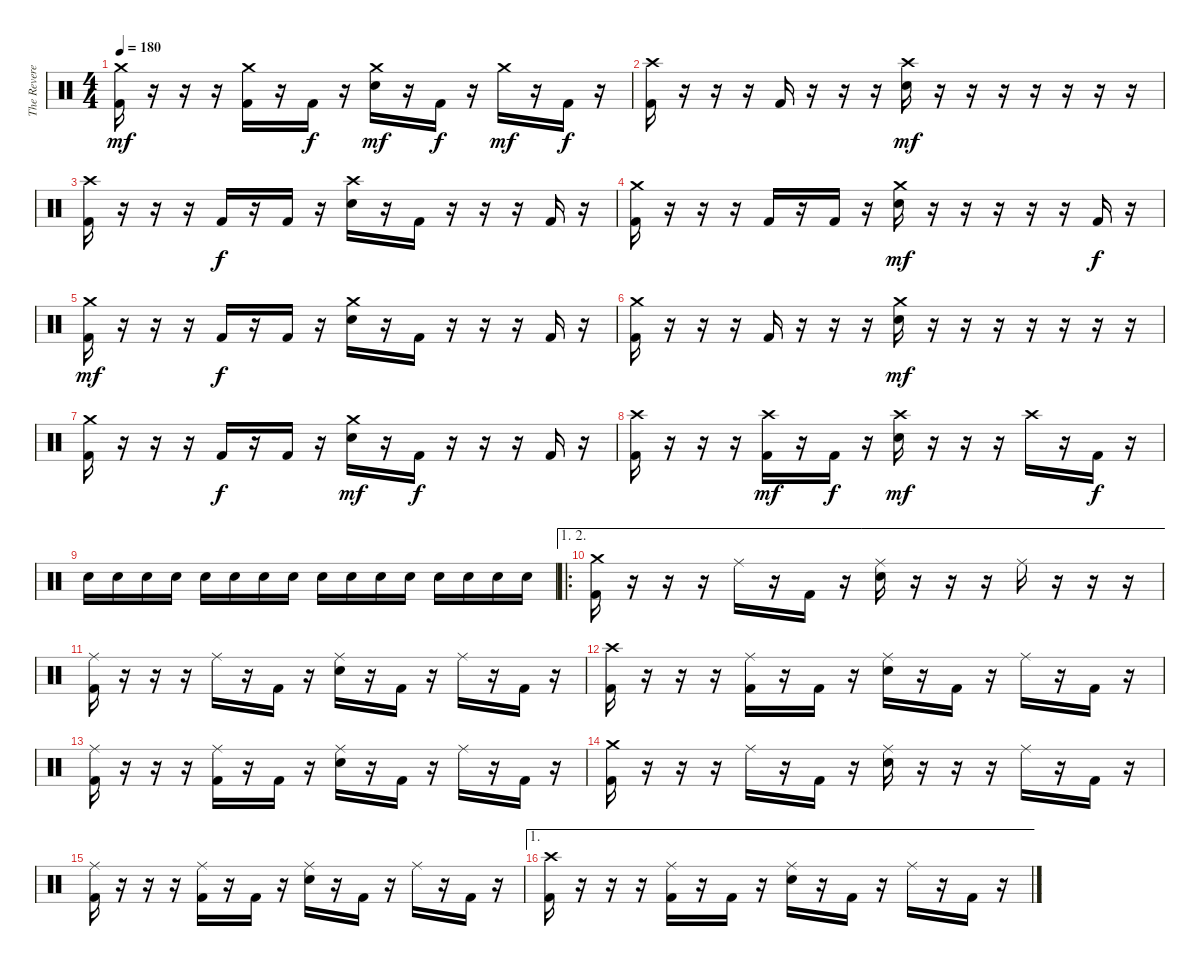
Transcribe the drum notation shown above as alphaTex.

\track ("The Reverend" "The Revere") {instrument percussion}
\staff {score}
\articulation defaults
\ts (4 4)
\tempo 180
\clef neutral
\ks c
("Crash medium (hit)" "Kick (hit) 2").16{dy mf} r.16 r.16 r.16 ("Crash medium (hit)" "Kick (hit) 2").16 r.16 "Kick (hit) 2".16{dy f} r.16 ("Crash medium (hit)" "Snare (hit) 2").16{dy mf} r.16 "Kick (hit) 2".16{dy f} r.16 "Crash medium (hit)".16{dy mf} r.16 "Kick (hit) 2".16{dy f} r.16 |
("Crash high (hit)" "Kick (hit) 2").16 r.16 r.16 r.16 "Kick (hit) 2".16 r.16 r.16 r.16 ("Crash high (hit)" "Snare (hit) 2").16{dy mf} r.16 r.16 r.16 r.16 r.16 r.16 r.16 |
("Crash high (hit)" "Kick (hit) 2").16 r.16 r.16 r.16 "Kick (hit) 2".16{dy f} r.16 "Kick (hit) 2".16 r.16 ("Crash high (hit)" "Snare (hit) 2").16 r.16 "Kick (hit) 2".16 r.16 r.16 r.16 "Kick (hit) 2".16 r.16 |
("Crash medium (hit)" "Kick (hit) 2").16 r.16 r.16 r.16 "Kick (hit) 2".16 r.16 "Kick (hit) 2".16 r.16 ("Crash medium (hit)" "Snare (hit) 2").16{dy mf} r.16 r.16 r.16 r.16 r.16 "Kick (hit) 2".16{dy f} r.16 |
("Crash medium (hit)" "Kick (hit) 2").16{dy mf} r.16 r.16 r.16 "Kick (hit) 2".16{dy f} r.16 "Kick (hit) 2".16 r.16 ("Crash medium (hit)" "Snare (hit) 2").16 r.16 "Kick (hit) 2".16 r.16 r.16 r.16 "Kick (hit) 2".16 r.16 |
("Crash medium (hit)" "Kick (hit) 2").16 r.16 r.16 r.16 "Kick (hit) 2".16 r.16 r.16 r.16 ("Crash medium (hit)" "Snare (hit) 2").16{dy mf} r.16 r.16 r.16 r.16 r.16 r.16 r.16 |
("Crash medium (hit)" "Kick (hit) 2").16 r.16 r.16 r.16 "Kick (hit) 2".16{dy f} r.16 "Kick (hit) 2".16 r.16 ("Crash medium (hit)" "Snare (hit) 2").16{dy mf} r.16 "Kick (hit) 2".16{dy f} r.16 r.16 r.16 "Kick (hit) 2".16 r.16 |
("Crash high (hit)" "Kick (hit) 2").16 r.16 r.16 r.16 ("Crash high (hit)" "Kick (hit) 2").16{dy mf} r.16 "Kick (hit) 2".16{dy f} r.16 ("Crash high (hit)" "Snare (hit) 2").16{dy mf} r.16 r.16 r.16 "Crash high (hit)".16 r.16 "Kick (hit) 2".16{dy f} r.16 |
"Snare (hit) 2".16 "Snare (hit) 2".16 "Snare (hit) 2".16 "Snare (hit) 2".16 "Snare (hit) 2".16 "Snare (hit) 2".16 "Snare (hit) 2".16 "Snare (hit) 2".16 "Snare (hit) 2".16 "Snare (hit) 2".16 "Snare (hit) 2".16 "Snare (hit) 2".16 "Snare (hit) 2".16 "Snare (hit) 2".16 "Snare (hit) 2".16 "Snare (hit) 2".16 |
\ae (1 2)
\ro
("Crash medium (hit)" "Kick (hit) 2").16 r.16 r.16 r.16 "Ride (middle)".16 r.16 "Kick (hit) 2".16 r.16 ("Ride (middle)" "Snare (hit) 2").16 r.16 r.16 r.16 "Ride (middle)".16 r.16 r.16 r.16 |
("Ride (middle)" "Kick (hit) 2").16 r.16 r.16 r.16 "Ride (middle)".16 r.16 "Kick (hit) 2".16 r.16 ("Ride (middle)" "Snare (hit) 2").16 r.16 "Kick (hit) 2".16 r.16 "Ride (middle)".16 r.16 "Kick (hit) 2".16 r.16 |
("Crash high (hit)" "Kick (hit) 2").16 r.16 r.16 r.16 ("Ride (middle)" "Kick (hit) 2").16 r.16 "Kick (hit) 2".16 r.16 ("Ride (middle)" "Snare (hit) 2").16 r.16 "Kick (hit) 2".16 r.16 "Ride (middle)".16 r.16 "Kick (hit) 2".16 r.16 |
("Ride (middle)" "Kick (hit) 2").16 r.16 r.16 r.16 ("Ride (middle)" "Kick (hit) 2").16 r.16 "Kick (hit) 2".16 r.16 ("Ride (middle)" "Snare (hit) 2").16 r.16 "Kick (hit) 2".16 r.16 "Ride (middle)".16 r.16 "Kick (hit) 2".16 r.16 |
("Crash medium (hit)" "Kick (hit) 2").16 r.16 r.16 r.16 "Ride (middle)".16 r.16 "Kick (hit) 2".16 r.16 ("Ride (middle)" "Snare (hit) 2").16 r.16 r.16 r.16 "Ride (middle)".16 r.16 "Kick (hit) 2".16 r.16 |
("Ride (middle)" "Kick (hit) 2").16 r.16 r.16 r.16 ("Ride (middle)" "Kick (hit) 2").16 r.16 "Kick (hit) 2".16 r.16 ("Ride (middle)" "Snare (hit) 2").16 r.16 "Kick (hit) 2".16 r.16 "Ride (middle)".16 r.16 "Kick (hit) 2".16 r.16 |
\ae 1
("Crash high (hit)" "Kick (hit) 2").16 r.16 r.16 r.16 ("Ride (middle)" "Kick (hit) 2").16 r.16 "Kick (hit) 2".16 r.16 ("Ride (middle)" "Snare (hit) 2").16 r.16 "Kick (hit) 2".16 r.16 "Ride (middle)".16 r.16 "Kick (hit) 2".16 r.16
